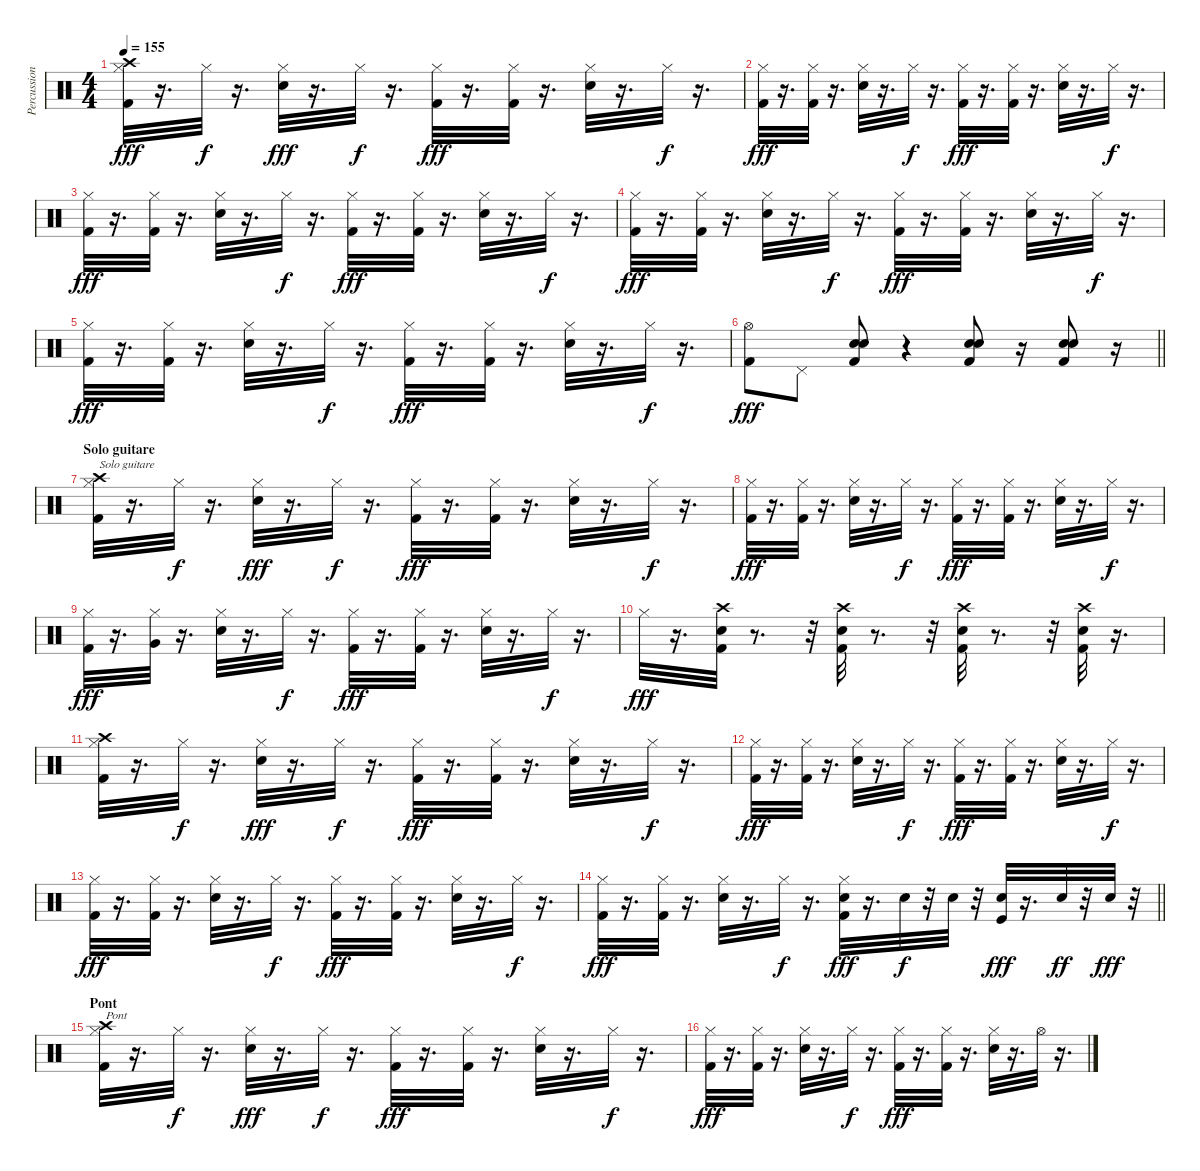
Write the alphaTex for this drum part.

\track ("Percussions" "Percussion") {instrument percussion}
\staff {score}
\articulation defaults
\ts (4 4)
\tempo 155
\clef neutral
\ks c
("Crash high (hit)" "Hi-Hat (closed)" "Kick (hit) 2").32{dy fff} r.16{d} "Hi-Hat (closed)".32{dy f} r.16{d} ("Hi-Hat (closed)" "Snare (hit) 2").32{dy fff} r.16{d} "Hi-Hat (closed)".32{dy f} r.16{d} ("Hi-Hat (closed)" "Kick (hit) 2").32{dy fff} r.16{d} ("Hi-Hat (closed)" "Kick (hit) 2").32 r.16{d} ("Hi-Hat (closed)" "Snare (hit) 2").32 r.16{d} "Hi-Hat (closed)".32{dy f} r.16{d} |
("Hi-Hat (closed)" "Kick (hit) 2").32{dy fff} r.16{d} ("Kick (hit) 2" "Hi-Hat (closed)").32 r.16{d} ("Hi-Hat (closed)" "Snare (hit) 2").32 r.16{d} "Hi-Hat (closed)".32{dy f} r.16{d} ("Hi-Hat (closed)" "Kick (hit) 2").32{dy fff} r.16{d} ("Hi-Hat (closed)" "Kick (hit) 2").32 r.16{d} ("Hi-Hat (closed)" "Snare (hit) 2").32 r.16{d} "Hi-Hat (closed)".32{dy f} r.16{d} |
("Hi-Hat (closed)" "Kick (hit) 2").32{dy fff} r.16{d} ("Kick (hit) 2" "Hi-Hat (closed)").32 r.16{d} ("Hi-Hat (closed)" "Snare (hit) 2").32 r.16{d} "Hi-Hat (closed)".32{dy f} r.16{d} ("Hi-Hat (closed)" "Kick (hit) 2").32{dy fff} r.16{d} ("Hi-Hat (closed)" "Kick (hit) 2").32 r.16{d} ("Hi-Hat (closed)" "Snare (hit) 2").32 r.16{d} "Hi-Hat (closed)".32{dy f} r.16{d} |
("Hi-Hat (closed)" "Kick (hit) 2").32{dy fff} r.16{d} ("Kick (hit) 2" "Hi-Hat (closed)").32 r.16{d} ("Hi-Hat (closed)" "Snare (hit) 2").32 r.16{d} "Hi-Hat (closed)".32{dy f} r.16{d} ("Hi-Hat (closed)" "Kick (hit) 2").32{dy fff} r.16{d} ("Hi-Hat (closed)" "Kick (hit) 2").32 r.16{d} ("Hi-Hat (closed)" "Snare (hit) 2").32 r.16{d} "Hi-Hat (closed)".32{dy f} r.16{d} |
("Hi-Hat (closed)" "Kick (hit) 2").32{dy fff} r.16{d} ("Kick (hit) 2" "Hi-Hat (closed)").32 r.16{d} ("Hi-Hat (closed)" "Snare (hit) 2").32 r.16{d} "Hi-Hat (closed)".32{dy f} r.16{d} ("Hi-Hat (closed)" "Kick (hit) 2").32{dy fff} r.16{d} ("Hi-Hat (closed)" "Kick (hit) 2").32 r.16{d} ("Hi-Hat (closed)" "Snare (hit) 2").32 r.16{d} "Hi-Hat (closed)".32{dy f} r.16{d} |
\barLineRight lightlight
("Kick (hit) 2" "Hi-Hat (open)").8{dy fff} "Pedal Hi-Hat (hit)".8 ("Snare (hit) 2" "Kick (hit) 2" "Snare (hit) 2").8 r.4 ("Snare (hit) 2" "Kick (hit) 2" "Snare (hit) 2").8 r.16 ("Kick (hit) 2" "Snare (hit) 2" "Snare (hit) 2").8 r.16 |
\section ("" "Solo guitare")
("Crash high (hit)" "Hi-Hat (closed)" "Kick (hit) 2").32{txt "Solo guitare"} r.16{d} "Hi-Hat (closed)".32{dy f} r.16{d} ("Hi-Hat (closed)" "Snare (hit) 2").32{dy fff} r.16{d} "Hi-Hat (closed)".32{dy f} r.16{d} ("Hi-Hat (closed)" "Kick (hit) 2").32{dy fff} r.16{d} ("Hi-Hat (closed)" "Kick (hit) 2").32 r.16{d} ("Hi-Hat (closed)" "Snare (hit) 2").32 r.16{d} "Hi-Hat (closed)".32{dy f} r.16{d} |
("Hi-Hat (closed)" "Kick (hit) 2").32{dy fff} r.16{d} ("Kick (hit) 2" "Hi-Hat (closed)").32 r.16{d} ("Hi-Hat (closed)" "Snare (hit) 2").32 r.16{d} "Hi-Hat (closed)".32{dy f} r.16{d} ("Hi-Hat (closed)" "Kick (hit) 2").32{dy fff} r.16{d} ("Hi-Hat (closed)" "Kick (hit) 2").32 r.16{d} ("Hi-Hat (closed)" "Snare (hit) 2").32 r.16{d} "Hi-Hat (closed)".32{dy f} r.16{d} |
("Hi-Hat (closed)" "Kick (hit) 2").32{dy fff} r.16{d} ("Hi-Hat (closed)" "Very Low Tom (hit)").32 r.16{d} ("Hi-Hat (closed)" "Snare (hit) 2").32 r.16{d} "Hi-Hat (closed)".32{dy f} r.16{d} ("Hi-Hat (closed)" "Kick (hit) 2").32{dy fff} r.16{d} ("Hi-Hat (closed)" "Kick (hit) 2").32 r.16{d} ("Hi-Hat (closed)" "Snare (hit) 2").32 r.16{d} "Hi-Hat (closed)".32{dy f} r.16{d} |
"Hi-Hat (closed)".32{dy fff} r.16{d} ("Snare (hit) 2" "Kick (hit) 2" "Crash high (hit)").32 r.8{d} r.32 ("Snare (hit) 2" "Kick (hit) 2" "Crash high (hit)").32 r.8{d} r.32 ("Snare (hit) 2" "Kick (hit) 2" "Crash high (hit)").32 r.8{d} r.32 ("Snare (hit) 2" "Kick (hit) 2" "Crash high (hit)").32 r.16{d} |
("Crash high (hit)" "Hi-Hat (closed)" "Kick (hit) 2").32 r.16{d} "Hi-Hat (closed)".32{dy f} r.16{d} ("Hi-Hat (closed)" "Snare (hit) 2").32{dy fff} r.16{d} "Hi-Hat (closed)".32{dy f} r.16{d} ("Hi-Hat (closed)" "Kick (hit) 2").32{dy fff} r.16{d} ("Hi-Hat (closed)" "Kick (hit) 2").32 r.16{d} ("Hi-Hat (closed)" "Snare (hit) 2").32 r.16{d} "Hi-Hat (closed)".32{dy f} r.16{d} |
("Hi-Hat (closed)" "Kick (hit) 2").32{dy fff} r.16{d} ("Kick (hit) 2" "Hi-Hat (closed)").32 r.16{d} ("Hi-Hat (closed)" "Snare (hit) 2").32 r.16{d} "Hi-Hat (closed)".32{dy f} r.16{d} ("Hi-Hat (closed)" "Kick (hit) 2").32{dy fff} r.16{d} ("Hi-Hat (closed)" "Kick (hit) 2").32 r.16{d} ("Hi-Hat (closed)" "Snare (hit) 2").32 r.16{d} "Hi-Hat (closed)".32{dy f} r.16{d} |
("Hi-Hat (closed)" "Kick (hit) 2").32{dy fff} r.16{d} ("Kick (hit) 2" "Hi-Hat (closed)").32 r.16{d} ("Hi-Hat (closed)" "Snare (hit) 2").32 r.16{d} "Hi-Hat (closed)".32{dy f} r.16{d} ("Hi-Hat (closed)" "Kick (hit) 2").32{dy fff} r.16{d} ("Hi-Hat (closed)" "Kick (hit) 2").32 r.16{d} ("Hi-Hat (closed)" "Snare (hit) 2").32 r.16{d} "Hi-Hat (closed)".32{dy f} r.16{d} |
\barLineRight lightlight
("Hi-Hat (closed)" "Kick (hit) 2").32{dy fff} r.16{d} ("Kick (hit) 2" "Hi-Hat (closed)").32 r.16{d} ("Hi-Hat (closed)" "Snare (hit) 2").32 r.16{d} "Hi-Hat (closed)".32{dy f} r.16{d} ("Snare (hit) 2" "Hi-Hat (closed)" "Kick (hit) 2").32{dy fff} r.16{d} "Snare (hit) 2".32{dy f} r.32 "Snare (hit) 2".32 r.32 ("Kick (hit)" "Snare (hit) 2").32{dy fff} r.16{d} "Snare (hit) 2".32{dy ff} r.32 "Snare (hit) 2".32{dy fff} r.32 |
\section ("" "Pont")
("Crash high (hit)" "Hi-Hat (closed)" "Kick (hit) 2").32{txt "Pont"} r.16{d} "Hi-Hat (closed)".32{dy f} r.16{d} ("Hi-Hat (closed)" "Snare (hit) 2").32{dy fff} r.16{d} "Hi-Hat (closed)".32{dy f} r.16{d} ("Hi-Hat (closed)" "Kick (hit) 2").32{dy fff} r.16{d} ("Hi-Hat (closed)" "Kick (hit) 2").32 r.16{d} ("Hi-Hat (closed)" "Snare (hit) 2").32 r.16{d} "Hi-Hat (closed)".32{dy f} r.16{d} |
("Hi-Hat (closed)" "Kick (hit) 2").32{dy fff} r.16{d} ("Kick (hit) 2" "Hi-Hat (closed)").32 r.16{d} ("Hi-Hat (closed)" "Snare (hit) 2").32 r.16{d} "Hi-Hat (closed)".32{dy f} r.16{d} ("Hi-Hat (closed)" "Kick (hit) 2").32{dy fff} r.16{d} ("Hi-Hat (closed)" "Kick (hit) 2").32 r.16{d} ("Hi-Hat (closed)" "Snare (hit) 2").32 r.16{d} "Hi-Hat (open)".32 r.16{d}
